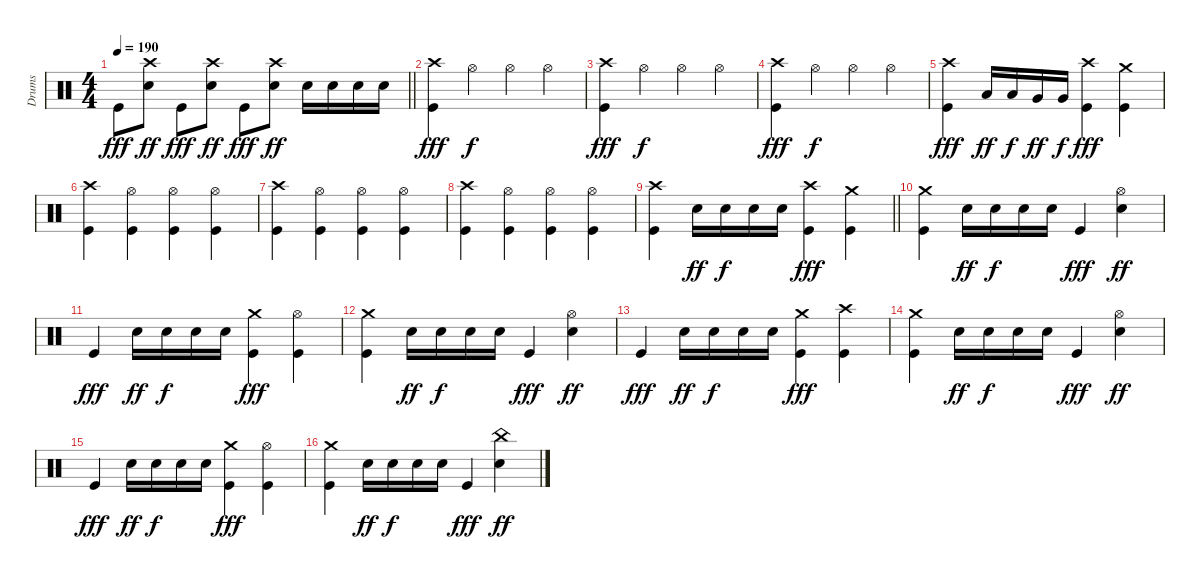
\track ("Drums" "Drums") {instrument percussion}
\staff {score}
\articulation defaults
\ts (4 4)
\tempo 190
\clef neutral
\barLineRight lightlight
\ks c "Kick (hit)".8{dy fff}
("Crash high (hit)" "Snare (hit) 2").8{dy ff} "Kick (hit)".8{dy fff} ("Crash high (hit)" "Snare (hit) 2").8{dy ff} "Kick (hit)".8{dy fff} ("Crash high (hit)" "Snare (hit) 2").8{dy ff} "Snare (hit) 2".16 "Snare (hit) 2".16 "Snare (hit) 2".16 "Snare (hit) 2".16 |
("Crash high (hit)" "Kick (hit)").4{dy fff} "Hi-Hat (open)".4{dy f} "Hi-Hat (open)".4 "Hi-Hat (open)".4 |
("Crash high (hit)" "Kick (hit)").4{dy fff} "Hi-Hat (open)".4{dy f} "Hi-Hat (open)".4 "Hi-Hat (open)".4 |
("Crash high (hit)" "Kick (hit)").4{dy fff} "Hi-Hat (open)".4{dy f} "Hi-Hat (open)".4 "Hi-Hat (open)".4 |
("Crash high (hit)" "Kick (hit)").4{dy fff} "Low Tom (hit)".16{dy ff} "Low Tom (hit)".16{dy f} "Very Low Tom (hit)".16{dy ff} "Very Low Tom (hit)".16{dy f} ("Crash high (hit)" "Kick (hit)").4{dy fff} ("Crash medium (hit)" "Kick (hit)").4 |
("Crash high (hit)" "Kick (hit)").4 ("Hi-Hat (open)" "Kick (hit)").4 ("Hi-Hat (open)" "Kick (hit)").4 ("Hi-Hat (open)" "Kick (hit)").4 |
("Crash high (hit)" "Kick (hit)").4 ("Hi-Hat (open)" "Kick (hit)").4 ("Hi-Hat (open)" "Kick (hit)").4 ("Hi-Hat (open)" "Kick (hit)").4 |
("Crash high (hit)" "Kick (hit)").4 ("Hi-Hat (open)" "Kick (hit)").4 ("Hi-Hat (open)" "Kick (hit)").4 ("Hi-Hat (open)" "Kick (hit)").4 |
\barLineRight lightlight
("Crash high (hit)" "Kick (hit)").4 "Snare (hit) 2".16{dy ff} "Snare (hit) 2".16{dy f} "Snare (hit) 2".16 "Snare (hit) 2".16 ("Crash high (hit)" "Kick (hit)").4{dy fff} ("Crash medium (hit)" "Kick (hit)").4 |
("Crash medium (hit)" "Kick (hit)").4 "Snare (hit) 2".16{dy ff} "Snare (hit) 2".16{dy f} "Snare (hit) 2".16 "Snare (hit) 2".16 "Kick (hit)".4{dy fff} ("Hi-Hat (open)" "Snare (hit) 2").4{dy ff} |
"Kick (hit)".4{dy fff} "Snare (hit) 2".16{dy ff} "Snare (hit) 2".16{dy f} "Snare (hit) 2".16 "Snare (hit) 2".16 ("Crash medium (hit)" "Kick (hit)").4{dy fff} ("Hi-Hat (open)" "Kick (hit)").4 |
("Crash medium (hit)" "Kick (hit)").4 "Snare (hit) 2".16{dy ff} "Snare (hit) 2".16{dy f} "Snare (hit) 2".16 "Snare (hit) 2".16 "Kick (hit)".4{dy fff} ("Hi-Hat (open)" "Snare (hit) 2").4{dy ff} |
"Kick (hit)".4{dy fff} "Snare (hit) 2".16{dy ff} "Snare (hit) 2".16{dy f} "Snare (hit) 2".16 "Snare (hit) 2".16 ("Crash medium (hit)" "Kick (hit)").4{dy fff} ("Crash high (hit)" "Kick (hit)").4 |
("Crash medium (hit)" "Kick (hit)").4 "Snare (hit) 2".16{dy ff} "Snare (hit) 2".16{dy f} "Snare (hit) 2".16 "Snare (hit) 2".16 "Kick (hit)".4{dy fff} ("Hi-Hat (open)" "Snare (hit) 2").4{dy ff} |
"Kick (hit)".4{dy fff} "Snare (hit) 2".16{dy ff} "Snare (hit) 2".16{dy f} "Snare (hit) 2".16 "Snare (hit) 2".16 ("Crash medium (hit)" "Kick (hit)").4{dy fff} ("Hi-Hat (open)" "Kick (hit)").4 |
("Crash medium (hit)" "Kick (hit)").4 "Snare (hit) 2".16{dy ff} "Snare (hit) 2".16{dy f} "Snare (hit) 2".16 "Snare (hit) 2".16 "Kick (hit)".4{dy fff} ("China (hit)" "Snare (hit) 2").4{dy ff}
